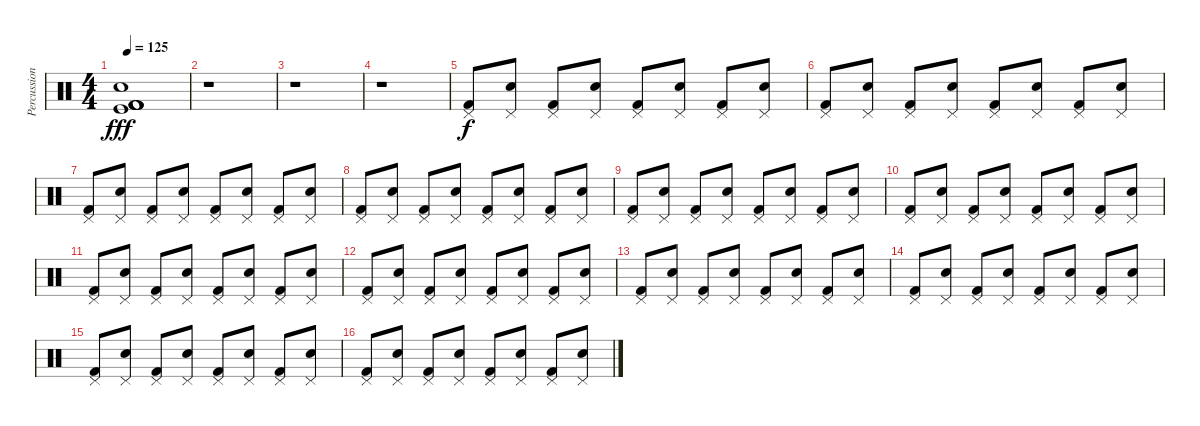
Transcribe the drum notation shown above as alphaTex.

\track ("Percussions" "Percussion") {instrument percussion}
\staff {score}
\articulation defaults
\ts (4 4)
\tempo 125
\clef neutral
\ks c
("Kick (hit) 2" "Kick (hit) 2" "Electric Snare (hit)" "Kick (hit)" "Kick (hit) 2" "Kick (hit) 2").1{dy fff} |
r.1 |
r.1 |
r.1 |
("Pedal Hi-Hat (hit)" "Kick (hit) 2").8{dy f} ("Pedal Hi-Hat (hit)" "Electric Snare (hit)").8 ("Pedal Hi-Hat (hit)" "Kick (hit) 2").8 ("Pedal Hi-Hat (hit)" "Electric Snare (hit)").8 ("Pedal Hi-Hat (hit)" "Kick (hit) 2").8 ("Pedal Hi-Hat (hit)" "Electric Snare (hit)").8 ("Pedal Hi-Hat (hit)" "Kick (hit) 2").8 ("Pedal Hi-Hat (hit)" "Electric Snare (hit)").8 |
("Pedal Hi-Hat (hit)" "Kick (hit) 2").8 ("Pedal Hi-Hat (hit)" "Electric Snare (hit)").8 ("Pedal Hi-Hat (hit)" "Kick (hit) 2").8 ("Pedal Hi-Hat (hit)" "Electric Snare (hit)").8 ("Pedal Hi-Hat (hit)" "Kick (hit) 2").8 ("Pedal Hi-Hat (hit)" "Electric Snare (hit)").8 ("Pedal Hi-Hat (hit)" "Kick (hit) 2").8 ("Pedal Hi-Hat (hit)" "Electric Snare (hit)").8 |
("Pedal Hi-Hat (hit)" "Kick (hit) 2").8 ("Pedal Hi-Hat (hit)" "Electric Snare (hit)").8 ("Pedal Hi-Hat (hit)" "Kick (hit) 2").8 ("Pedal Hi-Hat (hit)" "Electric Snare (hit)").8 ("Pedal Hi-Hat (hit)" "Kick (hit) 2").8 ("Pedal Hi-Hat (hit)" "Electric Snare (hit)").8 ("Pedal Hi-Hat (hit)" "Kick (hit) 2").8 ("Pedal Hi-Hat (hit)" "Electric Snare (hit)").8 |
("Pedal Hi-Hat (hit)" "Kick (hit) 2").8 ("Pedal Hi-Hat (hit)" "Electric Snare (hit)").8 ("Pedal Hi-Hat (hit)" "Kick (hit) 2").8 ("Pedal Hi-Hat (hit)" "Electric Snare (hit)").8 ("Pedal Hi-Hat (hit)" "Kick (hit) 2").8 ("Pedal Hi-Hat (hit)" "Electric Snare (hit)").8 ("Pedal Hi-Hat (hit)" "Kick (hit) 2").8 ("Pedal Hi-Hat (hit)" "Electric Snare (hit)").8 |
("Pedal Hi-Hat (hit)" "Kick (hit) 2").8 ("Pedal Hi-Hat (hit)" "Electric Snare (hit)").8 ("Pedal Hi-Hat (hit)" "Kick (hit) 2").8 ("Pedal Hi-Hat (hit)" "Electric Snare (hit)").8 ("Pedal Hi-Hat (hit)" "Kick (hit) 2").8 ("Pedal Hi-Hat (hit)" "Electric Snare (hit)").8 ("Pedal Hi-Hat (hit)" "Kick (hit) 2").8 ("Pedal Hi-Hat (hit)" "Electric Snare (hit)").8 |
("Pedal Hi-Hat (hit)" "Kick (hit) 2").8 ("Pedal Hi-Hat (hit)" "Electric Snare (hit)").8 ("Pedal Hi-Hat (hit)" "Kick (hit) 2").8 ("Pedal Hi-Hat (hit)" "Electric Snare (hit)").8 ("Pedal Hi-Hat (hit)" "Kick (hit) 2").8 ("Pedal Hi-Hat (hit)" "Electric Snare (hit)").8 ("Pedal Hi-Hat (hit)" "Kick (hit) 2").8 ("Pedal Hi-Hat (hit)" "Electric Snare (hit)").8 |
("Pedal Hi-Hat (hit)" "Kick (hit) 2").8 ("Pedal Hi-Hat (hit)" "Electric Snare (hit)").8 ("Pedal Hi-Hat (hit)" "Kick (hit) 2").8 ("Pedal Hi-Hat (hit)" "Electric Snare (hit)").8 ("Pedal Hi-Hat (hit)" "Kick (hit) 2").8 ("Pedal Hi-Hat (hit)" "Electric Snare (hit)").8 ("Pedal Hi-Hat (hit)" "Kick (hit) 2").8 ("Pedal Hi-Hat (hit)" "Electric Snare (hit)").8 |
("Pedal Hi-Hat (hit)" "Kick (hit) 2").8 ("Pedal Hi-Hat (hit)" "Electric Snare (hit)").8 ("Pedal Hi-Hat (hit)" "Kick (hit) 2").8 ("Pedal Hi-Hat (hit)" "Electric Snare (hit)").8 ("Pedal Hi-Hat (hit)" "Kick (hit) 2").8 ("Pedal Hi-Hat (hit)" "Electric Snare (hit)").8 ("Pedal Hi-Hat (hit)" "Kick (hit) 2").8 ("Pedal Hi-Hat (hit)" "Electric Snare (hit)").8 |
("Pedal Hi-Hat (hit)" "Kick (hit) 2").8 ("Pedal Hi-Hat (hit)" "Electric Snare (hit)").8 ("Pedal Hi-Hat (hit)" "Kick (hit) 2").8 ("Pedal Hi-Hat (hit)" "Electric Snare (hit)").8 ("Pedal Hi-Hat (hit)" "Kick (hit) 2").8 ("Pedal Hi-Hat (hit)" "Electric Snare (hit)").8 ("Pedal Hi-Hat (hit)" "Kick (hit) 2").8 ("Pedal Hi-Hat (hit)" "Electric Snare (hit)").8 |
("Pedal Hi-Hat (hit)" "Kick (hit) 2").8 ("Pedal Hi-Hat (hit)" "Electric Snare (hit)").8 ("Pedal Hi-Hat (hit)" "Kick (hit) 2").8 ("Pedal Hi-Hat (hit)" "Electric Snare (hit)").8 ("Pedal Hi-Hat (hit)" "Kick (hit) 2").8 ("Pedal Hi-Hat (hit)" "Electric Snare (hit)").8 ("Pedal Hi-Hat (hit)" "Kick (hit) 2").8 ("Pedal Hi-Hat (hit)" "Electric Snare (hit)").8 |
("Pedal Hi-Hat (hit)" "Kick (hit) 2").8 ("Pedal Hi-Hat (hit)" "Electric Snare (hit)").8 ("Pedal Hi-Hat (hit)" "Kick (hit) 2").8 ("Pedal Hi-Hat (hit)" "Electric Snare (hit)").8 ("Pedal Hi-Hat (hit)" "Kick (hit) 2").8 ("Pedal Hi-Hat (hit)" "Electric Snare (hit)").8 ("Pedal Hi-Hat (hit)" "Kick (hit) 2").8 ("Pedal Hi-Hat (hit)" "Electric Snare (hit)").8 |
("Pedal Hi-Hat (hit)" "Kick (hit) 2").8 ("Pedal Hi-Hat (hit)" "Electric Snare (hit)").8 ("Pedal Hi-Hat (hit)" "Kick (hit) 2").8 ("Pedal Hi-Hat (hit)" "Electric Snare (hit)").8 ("Pedal Hi-Hat (hit)" "Kick (hit) 2").8 ("Pedal Hi-Hat (hit)" "Electric Snare (hit)").8 ("Pedal Hi-Hat (hit)" "Kick (hit) 2").8 ("Pedal Hi-Hat (hit)" "Electric Snare (hit)").8
